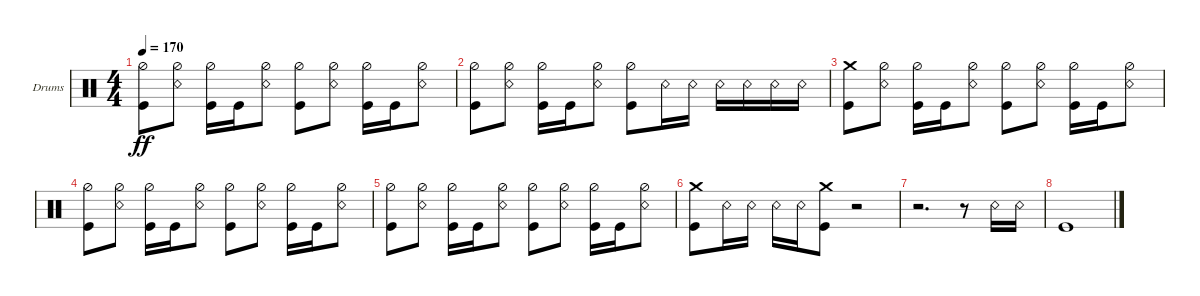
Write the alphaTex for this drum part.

\defaultSystemsLayout 4
\bracketExtendMode groupsimilarinstruments
\firstSystemTrackNameOrientation horizontal
\otherSystemsTrackNameOrientation horizontal
\track ("Nao - Drums" "Drums") {instrument percussion}
\staff {score}
\articulation defaults
\ts (4 4)
\tempo 170
\clef neutral
\ks c
("Hi-Hat (half)" "Kick (hit)").8{dy ff} ("Snare (rim shot)" "Hi-Hat (half)").8 ("Hi-Hat (half)" "Kick (hit)").16 "Kick (hit)".16 ("Hi-Hat (half)" "Snare (rim shot)").8 ("Hi-Hat (half)" "Kick (hit)").8 ("Snare (rim shot)" "Hi-Hat (half)").8 ("Hi-Hat (half)" "Kick (hit)").16 "Kick (hit)".16 ("Hi-Hat (half)" "Snare (rim shot)").8 |
("Hi-Hat (half)" "Kick (hit)").8 ("Snare (rim shot)" "Hi-Hat (half)").8 ("Hi-Hat (half)" "Kick (hit)").16 "Kick (hit)".16 ("Hi-Hat (half)" "Snare (rim shot)").8 ("Hi-Hat (half)" "Kick (hit)").8 "Snare (rim shot)".16 "Snare (rim shot)".16 "Snare (rim shot)".16 "Snare (rim shot)".16 "Snare (rim shot)".16 "Snare (rim shot)".16 |
("Kick (hit)" "Crash medium (hit)").8 ("Snare (rim shot)" "Hi-Hat (half)").8 ("Hi-Hat (half)" "Kick (hit)").16 "Kick (hit)".16 ("Hi-Hat (half)" "Snare (rim shot)").8 ("Hi-Hat (half)" "Kick (hit)").8 ("Snare (rim shot)" "Hi-Hat (half)").8 ("Hi-Hat (half)" "Kick (hit)").16 "Kick (hit)".16 ("Hi-Hat (half)" "Snare (rim shot)").8 |
("Hi-Hat (half)" "Kick (hit)").8 ("Snare (rim shot)" "Hi-Hat (half)").8 ("Hi-Hat (half)" "Kick (hit)").16 "Kick (hit)".16 ("Hi-Hat (half)" "Snare (rim shot)").8 ("Hi-Hat (half)" "Kick (hit)").8 ("Snare (rim shot)" "Hi-Hat (half)").8 ("Hi-Hat (half)" "Kick (hit)").16 "Kick (hit)".16 ("Hi-Hat (half)" "Snare (rim shot)").8 |
("Hi-Hat (half)" "Kick (hit)").8 ("Snare (rim shot)" "Hi-Hat (half)").8 ("Hi-Hat (half)" "Kick (hit)").16 "Kick (hit)".16 ("Hi-Hat (half)" "Snare (rim shot)").8 ("Hi-Hat (half)" "Kick (hit)").8 ("Snare (rim shot)" "Hi-Hat (half)").8 ("Hi-Hat (half)" "Kick (hit)").16 "Kick (hit)".16 ("Hi-Hat (half)" "Snare (rim shot)").8 |
("Crash medium (hit)" "Kick (hit)").8 "Snare (rim shot)".16 "Snare (rim shot)".16 "Snare (rim shot)".16 "Snare (rim shot)".16 ("Crash medium (hit)" "Kick (hit)").8 r.2 |
r.2{d} r.8 "Snare (rim shot)".16 "Snare (rim shot)".16 |
"Kick (hit)".1
